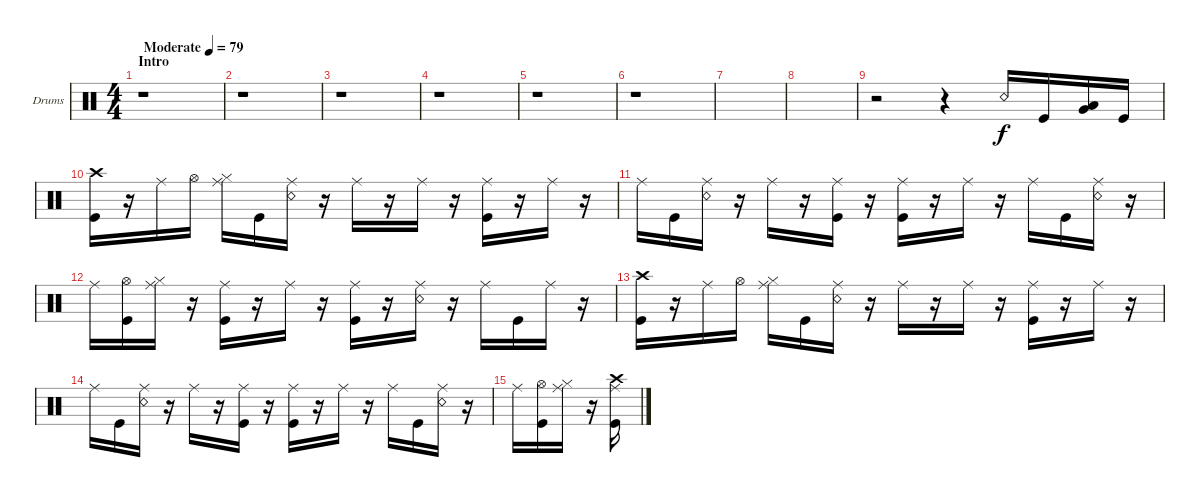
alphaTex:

\bracketExtendMode groupsimilarinstruments
\firstSystemTrackNameOrientation horizontal
\otherSystemsTrackNameOrientation horizontal
\track ("Scott Phillips" "Drums") {instrument percussion}
\staff {score}
\articulation defaults
\ts (4 4)
\beaming (8 2 2 2 2)
\section ("" "Intro")
\tempo (79 "Moderate")
\clef neutral
\ks c
r.1{dy f} |
r.1 |
r.1 |
r.1 |
r.1 |
r.1 |
|
|
r.2 r.4 "Snare (rim shot)".16 "Kick (hit)".16 ("Low Tom (hit)" "Very Low Tom (hit)").16 "Kick (hit)".16 |
("Crash high (hit)" "Kick (hit)").16 r.16 "Ride (middle)".16 "Hi-Hat (open)".16 ("Ride (middle)" "Hi-Hat (closed)").16 "Kick (hit)".16 ("Ride (middle)" "Snare (rim shot)").16 r.16 "Ride (middle)".16 r.16 "Ride (middle)".16 r.16 ("Ride (middle)" "Kick (hit)").16 r.16 "Ride (middle)".16 r.16 |
"Ride (middle)".16 "Kick (hit)".16 ("Ride (middle)" "Snare (rim shot)").16 r.16 "Ride (middle)".16 r.16 ("Ride (middle)" "Kick (hit)").16 r.16 ("Ride (middle)" "Kick (hit)").16 r.16 "Ride (middle)".16 r.16 "Ride (middle)".16 "Kick (hit)".16 ("Ride (middle)" "Snare (rim shot)").16 r.16 |
"Ride (middle)".16 ("Kick (hit)" "Hi-Hat (open)").16 ("Ride (middle)" "Hi-Hat (closed)").16 r.16 ("Ride (middle)" "Kick (hit)").16 r.16 "Ride (middle)".16 r.16 ("Ride (middle)" "Kick (hit)").16 r.16 ("Ride (middle)" "Snare (rim shot)").16 r.16 "Ride (middle)".16 "Kick (hit)".16 "Ride (middle)".16 r.16 |
("Crash high (hit)" "Kick (hit)").16 r.16 "Ride (middle)".16 "Hi-Hat (open)".16 ("Ride (middle)" "Hi-Hat (closed)").16 "Kick (hit)".16 ("Ride (middle)" "Snare (rim shot)").16 r.16 "Ride (middle)".16 r.16 "Ride (middle)".16 r.16 ("Ride (middle)" "Kick (hit)").16 r.16 "Ride (middle)".16 r.16 |
"Ride (middle)".16 "Kick (hit)".16 ("Ride (middle)" "Snare (rim shot)").16 r.16 "Ride (middle)".16 r.16 ("Ride (middle)" "Kick (hit)").16 r.16 ("Ride (middle)" "Kick (hit)").16 r.16 "Ride (middle)".16 r.16 "Ride (middle)".16 "Kick (hit)".16 ("Ride (middle)" "Snare (rim shot)").16 r.16 |
"Ride (middle)".16 ("Kick (hit)" "Hi-Hat (open)").16 ("Ride (middle)" "Hi-Hat (closed)").16 r.16 ("Ride (middle)" "Kick (hit)" "Crash high (hit)").16
